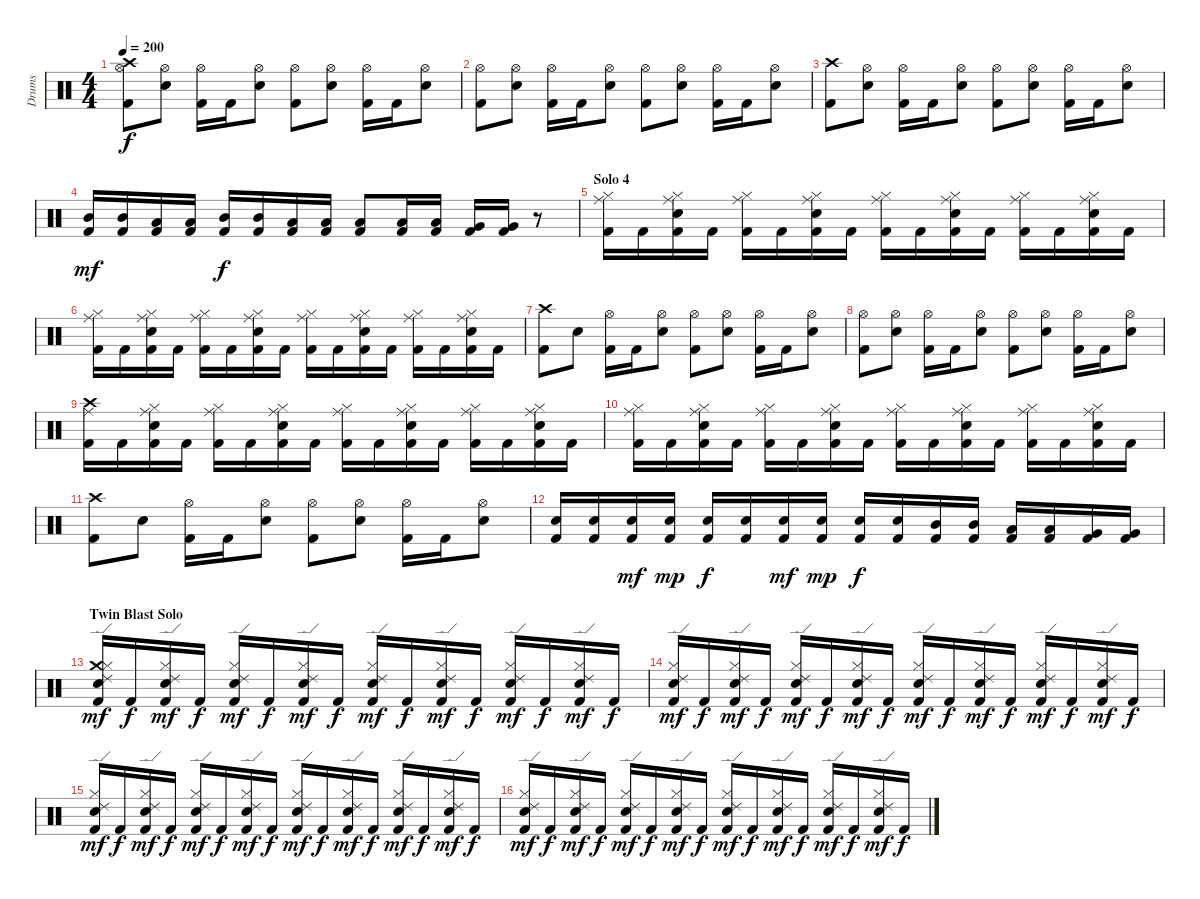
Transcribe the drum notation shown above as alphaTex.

\track ("Drums" "Drums") {instrument percussion}
\staff {score}
\articulation defaults
\ts (4 4)
\tempo 200
\clef neutral
\ks c
("Crash high (hit)" "Hi-Hat (open)" "Kick (hit) 2").8{dy f} ("Hi-Hat (open)" "Snare (hit) 2").8 ("Hi-Hat (open)" "Kick (hit) 2").16 "Kick (hit) 2".16 ("Hi-Hat (open)" "Snare (hit) 2").8 ("Hi-Hat (open)" "Kick (hit) 2").8 ("Hi-Hat (open)" "Snare (hit) 2").8 ("Hi-Hat (open)" "Kick (hit) 2").16 "Kick (hit) 2".16 ("Hi-Hat (open)" "Snare (hit) 2").8 |
("Hi-Hat (open)" "Kick (hit) 2").8 ("Hi-Hat (open)" "Snare (hit) 2").8 ("Hi-Hat (open)" "Kick (hit) 2").16 "Kick (hit) 2".16 ("Hi-Hat (open)" "Snare (hit) 2").8 ("Hi-Hat (open)" "Kick (hit) 2").8 ("Hi-Hat (open)" "Snare (hit) 2").8 ("Hi-Hat (open)" "Kick (hit) 2").16 "Kick (hit) 2".16 ("Hi-Hat (open)" "Snare (hit) 2").8 |
("Crash high (hit)" "Kick (hit) 2").8 ("Hi-Hat (open)" "Snare (hit) 2").8 ("Hi-Hat (open)" "Kick (hit) 2").16 "Kick (hit) 2".16 ("Hi-Hat (open)" "Snare (hit) 2").8 ("Hi-Hat (open)" "Kick (hit) 2").8 ("Hi-Hat (open)" "Snare (hit) 2").8 ("Hi-Hat (open)" "Kick (hit) 2").16 "Kick (hit) 2".16 ("Hi-Hat (open)" "Snare (hit) 2").8 |
("Mid Tom (hit)" "Kick (hit) 2").16{dy mf} ("Mid Tom (hit)" "Kick (hit) 2").16 ("Low Tom (hit)" "Kick (hit) 2").16 ("Low Tom (hit)" "Kick (hit) 2").16 ("Mid Tom (hit)" "Kick (hit) 2").16{dy f} ("Mid Tom (hit)" "Kick (hit) 2").16 ("Low Tom (hit)" "Kick (hit) 2").16 ("Low Tom (hit)" "Kick (hit) 2").16 ("Low Floor Tom (hit)" "Kick (hit) 2").8 ("Low Tom (hit)" "Kick (hit) 2").16 ("Low Tom (hit)" "Kick (hit) 2").16 ("Very Low Tom (hit)" "Kick (hit) 2").16 ("Very Low Tom (hit)" "Kick (hit) 2").16 r.8 |
\section ("" "Solo 4")
("Hi-Hat (closed)" "Ride (middle)" "Kick (hit) 2").16 "Kick (hit) 2".16 ("Hi-Hat (closed)" "Ride (middle)" "Snare (hit) 2" "Kick (hit) 2").16 "Kick (hit) 2".16 ("Hi-Hat (closed)" "Ride (middle)" "Kick (hit) 2").16 "Kick (hit) 2".16 ("Hi-Hat (closed)" "Ride (middle)" "Snare (hit) 2" "Kick (hit) 2").16 "Kick (hit) 2".16 ("Hi-Hat (closed)" "Ride (middle)" "Kick (hit) 2").16 "Kick (hit) 2".16 ("Hi-Hat (closed)" "Ride (middle)" "Snare (hit) 2" "Kick (hit) 2").16 "Kick (hit) 2".16 ("Hi-Hat (closed)" "Ride (middle)" "Kick (hit) 2").16 "Kick (hit) 2".16 ("Hi-Hat (closed)" "Ride (middle)" "Snare (hit) 2" "Kick (hit) 2").16 "Kick (hit) 2".16 |
("Hi-Hat (closed)" "Ride (middle)" "Kick (hit) 2").16 "Kick (hit) 2".16 ("Hi-Hat (closed)" "Ride (middle)" "Snare (hit) 2" "Kick (hit) 2").16 "Kick (hit) 2".16 ("Hi-Hat (closed)" "Ride (middle)" "Kick (hit) 2").16 "Kick (hit) 2".16 ("Hi-Hat (closed)" "Ride (middle)" "Snare (hit) 2" "Kick (hit) 2").16 "Kick (hit) 2".16 ("Hi-Hat (closed)" "Ride (middle)" "Kick (hit) 2").16 "Kick (hit) 2".16 ("Hi-Hat (closed)" "Ride (middle)" "Snare (hit) 2" "Kick (hit) 2").16 "Kick (hit) 2".16 ("Hi-Hat (closed)" "Ride (middle)" "Kick (hit) 2").16 "Kick (hit) 2".16 ("Hi-Hat (closed)" "Ride (middle)" "Snare (hit) 2" "Kick (hit) 2").16 "Kick (hit) 2".16 |
("Crash high (hit)" "Kick (hit) 2").8 "Snare (hit) 2".8 ("Hi-Hat (open)" "Kick (hit) 2").16 "Kick (hit) 2".16 ("Hi-Hat (open)" "Snare (hit) 2").8 ("Hi-Hat (open)" "Kick (hit) 2").8 ("Hi-Hat (open)" "Snare (hit) 2").8 ("Hi-Hat (open)" "Kick (hit) 2").16 "Kick (hit) 2".16 ("Hi-Hat (open)" "Snare (hit) 2").8 |
("Hi-Hat (open)" "Kick (hit) 2").8 ("Hi-Hat (open)" "Snare (hit) 2").8 ("Hi-Hat (open)" "Kick (hit) 2").16 "Kick (hit) 2".16 ("Hi-Hat (open)" "Snare (hit) 2").8 ("Hi-Hat (open)" "Kick (hit) 2").8 ("Hi-Hat (open)" "Snare (hit) 2").8 ("Hi-Hat (open)" "Kick (hit) 2").16 "Kick (hit) 2".16 ("Hi-Hat (open)" "Snare (hit) 2").8 |
("Crash high (hit)" "Ride (middle)" "Kick (hit) 2").16 "Kick (hit) 2".16 ("Hi-Hat (closed)" "Ride (middle)" "Snare (hit) 2" "Kick (hit) 2").16 "Kick (hit) 2".16 ("Hi-Hat (closed)" "Ride (middle)" "Kick (hit) 2").16 "Kick (hit) 2".16 ("Hi-Hat (closed)" "Ride (middle)" "Snare (hit) 2" "Kick (hit) 2").16 "Kick (hit) 2".16 ("Hi-Hat (closed)" "Ride (middle)" "Kick (hit) 2").16 "Kick (hit) 2".16 ("Hi-Hat (closed)" "Ride (middle)" "Snare (hit) 2" "Kick (hit) 2").16 "Kick (hit) 2".16 ("Hi-Hat (closed)" "Ride (middle)" "Kick (hit) 2").16 "Kick (hit) 2".16 ("Hi-Hat (closed)" "Ride (middle)" "Snare (hit) 2" "Kick (hit) 2").16 "Kick (hit) 2".16 |
("Hi-Hat (closed)" "Ride (middle)" "Kick (hit) 2").16 "Kick (hit) 2".16 ("Hi-Hat (closed)" "Ride (middle)" "Snare (hit) 2" "Kick (hit) 2").16 "Kick (hit) 2".16 ("Hi-Hat (closed)" "Ride (middle)" "Kick (hit) 2").16 "Kick (hit) 2".16 ("Hi-Hat (closed)" "Ride (middle)" "Snare (hit) 2" "Kick (hit) 2").16 "Kick (hit) 2".16 ("Hi-Hat (closed)" "Ride (middle)" "Kick (hit) 2").16 "Kick (hit) 2".16 ("Hi-Hat (closed)" "Ride (middle)" "Snare (hit) 2" "Kick (hit) 2").16 "Kick (hit) 2".16 ("Hi-Hat (closed)" "Ride (middle)" "Kick (hit) 2").16 "Kick (hit) 2".16 ("Hi-Hat (closed)" "Ride (middle)" "Snare (hit) 2" "Kick (hit) 2").16 "Kick (hit) 2".16 |
("Crash high (hit)" "Kick (hit) 2").8 "Snare (hit) 2".8 ("Hi-Hat (open)" "Kick (hit) 2").16 "Kick (hit) 2".16 ("Hi-Hat (open)" "Snare (hit) 2").8 ("Hi-Hat (open)" "Kick (hit) 2").8 ("Hi-Hat (open)" "Snare (hit) 2").8 ("Hi-Hat (open)" "Kick (hit) 2").16 "Kick (hit) 2".16 ("Hi-Hat (open)" "Snare (hit) 2").8 |
("Snare (hit) 2" "Kick (hit) 2").16 ("Snare (hit) 2" "Kick (hit) 2").16 ("Snare (hit) 2" "Kick (hit) 2").16{dy mf} ("Snare (hit) 2" "Kick (hit) 2").16{dy mp} ("Snare (hit) 2" "Kick (hit) 2").16{dy f} ("Snare (hit) 2" "Kick (hit) 2").16 ("Snare (hit) 2" "Kick (hit) 2").16{dy mf} ("Snare (hit) 2" "Kick (hit) 2").16{dy mp} ("Snare (hit) 2" "Kick (hit) 2").16{dy f} ("Snare (hit) 2" "Kick (hit) 2").16 ("Mid Tom (hit)" "Kick (hit) 2").16 ("Mid Tom (hit)" "Kick (hit) 2").16 ("Low Tom (hit)" "Kick (hit) 2").16 ("Low Tom (hit)" "Kick (hit) 2").16 ("Very Low Tom (hit)" "Kick (hit) 2").16 ("Very Low Tom (hit)" "Kick (hit) 2").16 |
\section ("" "Twin Blast Solo")
("Crash medium (hit)" "Hi-Hat (closed)" "Ride (edge) 2" "Snare (hit) 2" "Kick (hit) 2").16{dy mf} "Kick (hit) 2".16{dy f} ("Hi-Hat (closed)" "Ride (edge) 2" "Snare (hit) 2" "Kick (hit) 2").16{dy mf} "Kick (hit) 2".16{dy f} ("Hi-Hat (closed)" "Ride (edge) 2" "Snare (hit) 2" "Kick (hit) 2").16{dy mf} "Kick (hit) 2".16{dy f} ("Hi-Hat (closed)" "Ride (edge) 2" "Snare (hit) 2" "Kick (hit) 2").16{dy mf} "Kick (hit) 2".16{dy f} ("Hi-Hat (closed)" "Ride (edge) 2" "Snare (hit) 2" "Kick (hit) 2").16{dy mf} "Kick (hit) 2".16{dy f} ("Hi-Hat (closed)" "Ride (edge) 2" "Snare (hit) 2" "Kick (hit) 2").16{dy mf} "Kick (hit) 2".16{dy f} ("Hi-Hat (closed)" "Ride (edge) 2" "Snare (hit) 2" "Kick (hit) 2").16{dy mf} "Kick (hit) 2".16{dy f} ("Hi-Hat (closed)" "Ride (edge) 2" "Snare (hit) 2" "Kick (hit) 2").16{dy mf} "Kick (hit) 2".16{dy f} |
("Hi-Hat (closed)" "Ride (edge) 2" "Snare (hit) 2" "Kick (hit) 2").16{dy mf} "Kick (hit) 2".16{dy f} ("Hi-Hat (closed)" "Ride (edge) 2" "Snare (hit) 2" "Kick (hit) 2").16{dy mf} "Kick (hit) 2".16{dy f} ("Hi-Hat (closed)" "Ride (edge) 2" "Snare (hit) 2" "Kick (hit) 2").16{dy mf} "Kick (hit) 2".16{dy f} ("Hi-Hat (closed)" "Ride (edge) 2" "Snare (hit) 2" "Kick (hit) 2").16{dy mf} "Kick (hit) 2".16{dy f} ("Hi-Hat (closed)" "Ride (edge) 2" "Snare (hit) 2" "Kick (hit) 2").16{dy mf} "Kick (hit) 2".16{dy f} ("Hi-Hat (closed)" "Ride (edge) 2" "Snare (hit) 2" "Kick (hit) 2").16{dy mf} "Kick (hit) 2".16{dy f} ("Hi-Hat (closed)" "Ride (edge) 2" "Snare (hit) 2" "Kick (hit) 2").16{dy mf} "Kick (hit) 2".16{dy f} ("Hi-Hat (closed)" "Ride (edge) 2" "Snare (hit) 2" "Kick (hit) 2").16{dy mf} "Kick (hit) 2".16{dy f} |
("Hi-Hat (closed)" "Ride (edge) 2" "Snare (hit) 2" "Kick (hit) 2").16{dy mf} "Kick (hit) 2".16{dy f} ("Hi-Hat (closed)" "Ride (edge) 2" "Snare (hit) 2" "Kick (hit) 2").16{dy mf} "Kick (hit) 2".16{dy f} ("Hi-Hat (closed)" "Ride (edge) 2" "Snare (hit) 2" "Kick (hit) 2").16{dy mf} "Kick (hit) 2".16{dy f} ("Hi-Hat (closed)" "Ride (edge) 2" "Snare (hit) 2" "Kick (hit) 2").16{dy mf} "Kick (hit) 2".16{dy f} ("Hi-Hat (closed)" "Ride (edge) 2" "Snare (hit) 2" "Kick (hit) 2").16{dy mf} "Kick (hit) 2".16{dy f} ("Hi-Hat (closed)" "Ride (edge) 2" "Snare (hit) 2" "Kick (hit) 2").16{dy mf} "Kick (hit) 2".16{dy f} ("Hi-Hat (closed)" "Ride (edge) 2" "Snare (hit) 2" "Kick (hit) 2").16{dy mf} "Kick (hit) 2".16{dy f} ("Hi-Hat (closed)" "Ride (edge) 2" "Snare (hit) 2" "Kick (hit) 2").16{dy mf} "Kick (hit) 2".16{dy f} |
("Hi-Hat (closed)" "Ride (edge) 2" "Snare (hit) 2" "Kick (hit) 2").16{dy mf} "Kick (hit) 2".16{dy f} ("Hi-Hat (closed)" "Ride (edge) 2" "Snare (hit) 2" "Kick (hit) 2").16{dy mf} "Kick (hit) 2".16{dy f} ("Hi-Hat (closed)" "Ride (edge) 2" "Snare (hit) 2" "Kick (hit) 2").16{dy mf} "Kick (hit) 2".16{dy f} ("Hi-Hat (closed)" "Ride (edge) 2" "Snare (hit) 2" "Kick (hit) 2").16{dy mf} "Kick (hit) 2".16{dy f} ("Hi-Hat (closed)" "Ride (edge) 2" "Snare (hit) 2" "Kick (hit) 2").16{dy mf} "Kick (hit) 2".16{dy f} ("Hi-Hat (closed)" "Ride (edge) 2" "Snare (hit) 2" "Kick (hit) 2").16{dy mf} "Kick (hit) 2".16{dy f} ("Hi-Hat (closed)" "Ride (edge) 2" "Snare (hit) 2" "Kick (hit) 2").16{dy mf} "Kick (hit) 2".16{dy f} ("Hi-Hat (closed)" "Ride (edge) 2" "Snare (hit) 2" "Kick (hit) 2").16{dy mf} "Kick (hit) 2".16{dy f}
